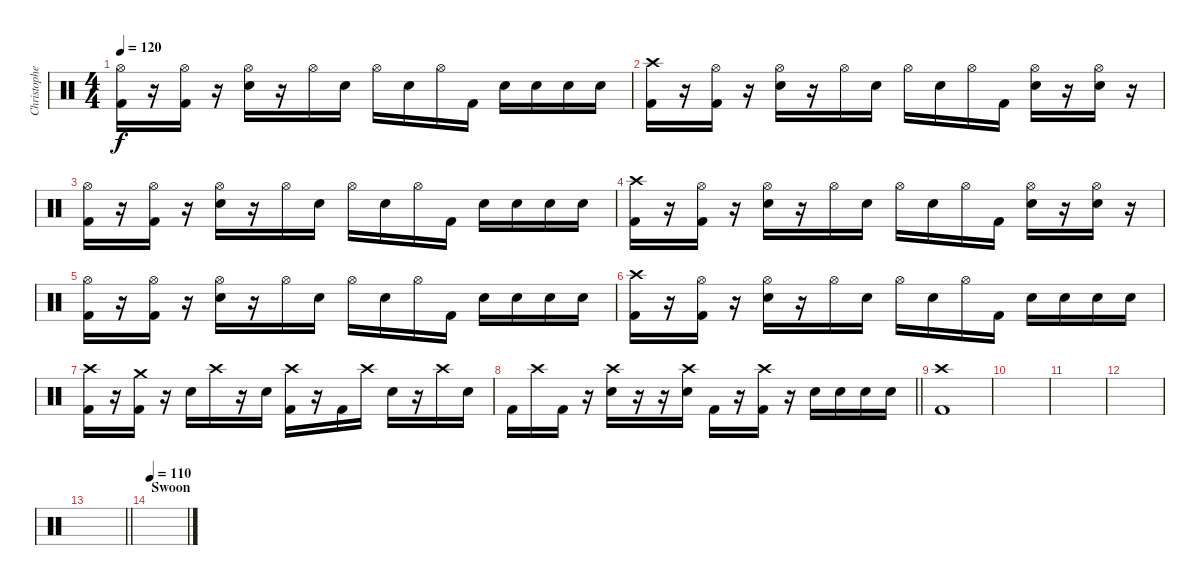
\track ("Christopher - Drums" "Christophe") {instrument percussion}
\staff {score}
\articulation defaults
\ts (4 4)
\tempo 120
\clef neutral
\ks c
("Hi-Hat (open)" "Kick (hit) 2").16{dy f} r.16 ("Hi-Hat (open)" "Kick (hit) 2").16 r.16 ("Hi-Hat (open)" "Electric Snare (hit)").16 r.16 "Hi-Hat (open)".16 "Electric Snare (hit)".16 "Hi-Hat (open)".16 "Electric Snare (hit)".16 "Hi-Hat (open)".16 "Kick (hit) 2".16 "Electric Snare (hit)".16 "Electric Snare (hit)".16 "Electric Snare (hit)".16 "Electric Snare (hit)".16 |
("Crash high (hit)" "Kick (hit) 2").16 r.16 ("Hi-Hat (open)" "Kick (hit) 2").16 r.16 ("Hi-Hat (open)" "Electric Snare (hit)").16 r.16 "Hi-Hat (open)".16 "Electric Snare (hit)".16 "Hi-Hat (open)".16 "Electric Snare (hit)".16 "Hi-Hat (open)".16 "Kick (hit) 2".16 ("Hi-Hat (open)" "Electric Snare (hit)").16 r.16 ("Hi-Hat (open)" "Electric Snare (hit)").16 r.16 |
("Hi-Hat (open)" "Kick (hit) 2").16 r.16 ("Hi-Hat (open)" "Kick (hit) 2").16 r.16 ("Hi-Hat (open)" "Electric Snare (hit)").16 r.16 "Hi-Hat (open)".16 "Electric Snare (hit)".16 "Hi-Hat (open)".16 "Electric Snare (hit)".16 "Hi-Hat (open)".16 "Kick (hit) 2".16 "Electric Snare (hit)".16 "Electric Snare (hit)".16 "Electric Snare (hit)".16 "Electric Snare (hit)".16 |
("Crash high (hit)" "Kick (hit) 2").16 r.16 ("Hi-Hat (open)" "Kick (hit) 2").16 r.16 ("Hi-Hat (open)" "Electric Snare (hit)").16 r.16 "Hi-Hat (open)".16 "Electric Snare (hit)".16 "Hi-Hat (open)".16 "Electric Snare (hit)".16 "Hi-Hat (open)".16 "Kick (hit) 2".16 ("Hi-Hat (open)" "Electric Snare (hit)").16 r.16 ("Hi-Hat (open)" "Electric Snare (hit)").16 r.16 |
("Hi-Hat (open)" "Kick (hit) 2").16 r.16 ("Hi-Hat (open)" "Kick (hit) 2").16 r.16 ("Hi-Hat (open)" "Electric Snare (hit)").16 r.16 "Hi-Hat (open)".16 "Electric Snare (hit)".16 "Hi-Hat (open)".16 "Electric Snare (hit)".16 "Hi-Hat (open)".16 "Kick (hit) 2".16 "Electric Snare (hit)".16 "Electric Snare (hit)".16 "Electric Snare (hit)".16 "Electric Snare (hit)".16 |
("Crash high (hit)" "Kick (hit) 2").16 r.16 ("Hi-Hat (open)" "Kick (hit) 2").16 r.16 ("Hi-Hat (open)" "Electric Snare (hit)").16 r.16 "Hi-Hat (open)".16 "Electric Snare (hit)".16 "Hi-Hat (open)".16 "Electric Snare (hit)".16 "Hi-Hat (open)".16 "Kick (hit) 2".16 "Electric Snare (hit)".16 "Electric Snare (hit)".16 "Electric Snare (hit)".16 "Electric Snare (hit)".16 |
("Crash high (hit)" "Kick (hit) 2").16 r.16 ("Crash medium (hit)" "Kick (hit) 2").16 r.16 "Electric Snare (hit)".16 "Crash high (hit)".16 r.16 "Electric Snare (hit)".16 ("Crash high (hit)" "Kick (hit) 2").16 r.16 "Kick (hit) 2".16 "Crash high (hit)".16 "Electric Snare (hit)".16 r.16 "Crash high (hit)".16 "Electric Snare (hit)".16 |
\barLineRight lightlight "Kick (hit) 2".16 "Crash high (hit)".16 "Kick (hit) 2".16
r.16 ("Crash high (hit)" "Electric Snare (hit)").16 r.16 r.16 ("Crash high (hit)" "Electric Snare (hit)").16 "Kick (hit) 2".16 r.16 ("Crash high (hit)" "Kick (hit) 2").16 r.16 "Electric Snare (hit)".16 "Electric Snare (hit)".16 "Electric Snare (hit)".16 "Electric Snare (hit)".16 |
("Crash high (hit)" "Kick (hit) 2").1 |
|
|
|
\barLineRight lightlight
|
\section ("" "Swoon")
\tempo 110
